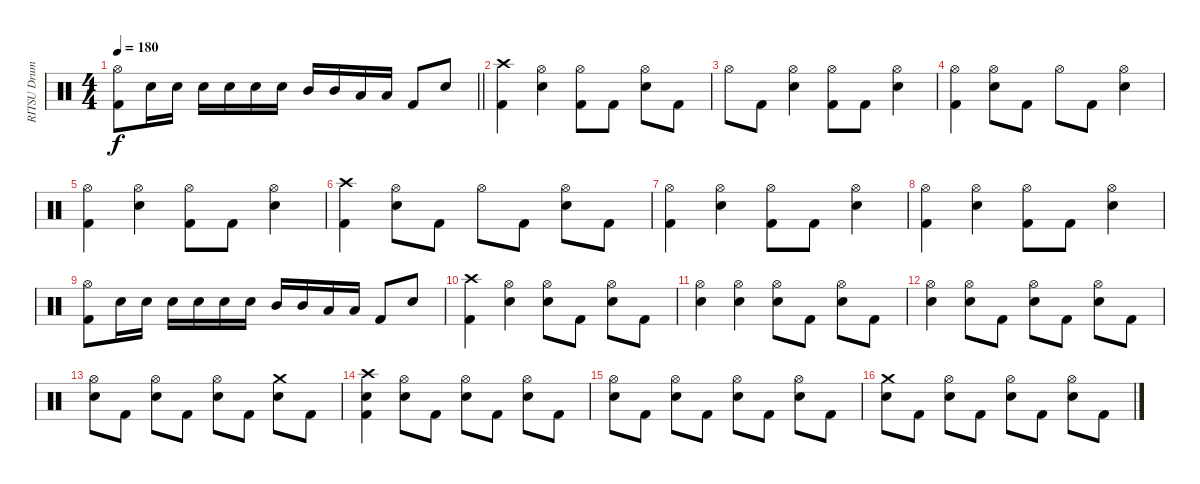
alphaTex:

\track ("RITSU Drums" "RITSU Drum") {instrument percussion}
\staff {score}
\articulation defaults
\ts (4 4)
\tempo 180
\clef neutral
\barLineRight lightlight
\ks c
("Hi-Hat (open)" "Kick (hit) 2").8{dy f} "Snare (hit) 2".16 "Snare (hit) 2".16 "Snare (hit) 2".16 "Snare (hit) 2".16 "Snare (hit) 2".16 "Snare (hit) 2".16 "Mid Tom (hit)".16 "Mid Tom (hit)".16 "Low Tom (hit)".16 "Low Tom (hit)".16 "Kick (hit) 2".8 "Snare (hit) 2".8 |
("Crash high (hit)" "Kick (hit) 2").4 ("Hi-Hat (open)" "Snare (hit) 2").4 ("Hi-Hat (open)" "Kick (hit) 2").8 "Kick (hit) 2".8 ("Hi-Hat (open)" "Snare (hit) 2").8 "Kick (hit) 2".8 |
"Hi-Hat (open)".8 "Kick (hit) 2".8 ("Hi-Hat (open)" "Snare (hit) 2").4 ("Hi-Hat (open)" "Kick (hit) 2").8 "Kick (hit) 2".8 ("Hi-Hat (open)" "Snare (hit) 2").4 |
("Hi-Hat (open)" "Kick (hit) 2").4 ("Hi-Hat (open)" "Snare (hit) 2").8 "Kick (hit) 2".8 "Hi-Hat (open)".8 "Kick (hit) 2".8 ("Hi-Hat (open)" "Snare (hit) 2").4 |
("Hi-Hat (open)" "Kick (hit) 2").4 ("Hi-Hat (open)" "Snare (hit) 2").4 ("Hi-Hat (open)" "Kick (hit) 2").8 "Kick (hit) 2".8 ("Hi-Hat (open)" "Snare (hit) 2").4 |
("Crash high (hit)" "Kick (hit) 2").4 ("Hi-Hat (open)" "Snare (hit) 2").8 "Kick (hit) 2".8 "Hi-Hat (open)".8 "Kick (hit) 2".8 ("Hi-Hat (open)" "Snare (hit) 2").8 "Kick (hit) 2".8 |
("Hi-Hat (open)" "Kick (hit) 2").4 ("Hi-Hat (open)" "Snare (hit) 2").4 ("Hi-Hat (open)" "Kick (hit) 2").8 "Kick (hit) 2".8 ("Hi-Hat (open)" "Snare (hit) 2").4 |
("Hi-Hat (open)" "Kick (hit) 2").4 ("Hi-Hat (open)" "Snare (hit) 2").4 ("Hi-Hat (open)" "Kick (hit) 2").8 "Kick (hit) 2".8 ("Hi-Hat (open)" "Snare (hit) 2").4 |
("Hi-Hat (open)" "Kick (hit) 2").8 "Snare (hit) 2".16 "Snare (hit) 2".16 "Snare (hit) 2".16 "Snare (hit) 2".16 "Snare (hit) 2".16 "Snare (hit) 2".16 "Mid Tom (hit)".16 "Mid Tom (hit)".16 "Low Tom (hit)".16 "Low Tom (hit)".16 "Kick (hit) 2".8 "Snare (hit) 2".8 |
("Crash high (hit)" "Kick (hit) 2").4 ("Hi-Hat (open)" "Snare (hit) 2").4 ("Hi-Hat (open)" "Snare (hit) 2").8 "Kick (hit) 2".8 ("Hi-Hat (open)" "Snare (hit) 2").8 "Kick (hit) 2".8 |
("Hi-Hat (open)" "Snare (hit) 2").4 ("Hi-Hat (open)" "Snare (hit) 2").4 ("Hi-Hat (open)" "Snare (hit) 2").8 "Kick (hit) 2".8 ("Hi-Hat (open)" "Snare (hit) 2").8 "Kick (hit) 2".8 |
("Hi-Hat (open)" "Snare (hit) 2").4 ("Hi-Hat (open)" "Snare (hit) 2").8 "Kick (hit) 2".8 ("Hi-Hat (open)" "Snare (hit) 2").8 "Kick (hit) 2".8 ("Hi-Hat (open)" "Snare (hit) 2").8 "Kick (hit) 2".8 |
("Hi-Hat (open)" "Snare (hit) 2").8 "Kick (hit) 2".8 ("Hi-Hat (open)" "Snare (hit) 2").8 "Kick (hit) 2".8 ("Hi-Hat (open)" "Snare (hit) 2").8 "Kick (hit) 2".8 ("Crash medium (hit)" "Snare (hit) 2").8 "Kick (hit) 2".8 |
("Crash high (hit)" "Snare (hit) 2" "Kick (hit) 2").4 ("Hi-Hat (open)" "Snare (hit) 2").8 "Kick (hit) 2".8 ("Hi-Hat (open)" "Snare (hit) 2").8 "Kick (hit) 2".8 ("Hi-Hat (open)" "Snare (hit) 2").8 "Kick (hit) 2".8 |
("Hi-Hat (open)" "Snare (hit) 2").8 "Kick (hit) 2".8 ("Hi-Hat (open)" "Snare (hit) 2").8 "Kick (hit) 2".8 ("Hi-Hat (open)" "Snare (hit) 2").8 "Kick (hit) 2".8 ("Hi-Hat (open)" "Snare (hit) 2").8 "Kick (hit) 2".8 |
("Crash medium (hit)" "Snare (hit) 2").8 "Kick (hit) 2".8 ("Hi-Hat (open)" "Snare (hit) 2").8 "Kick (hit) 2".8 ("Hi-Hat (open)" "Snare (hit) 2").8 "Kick (hit) 2".8 ("Hi-Hat (open)" "Snare (hit) 2").8 "Kick (hit) 2".8
